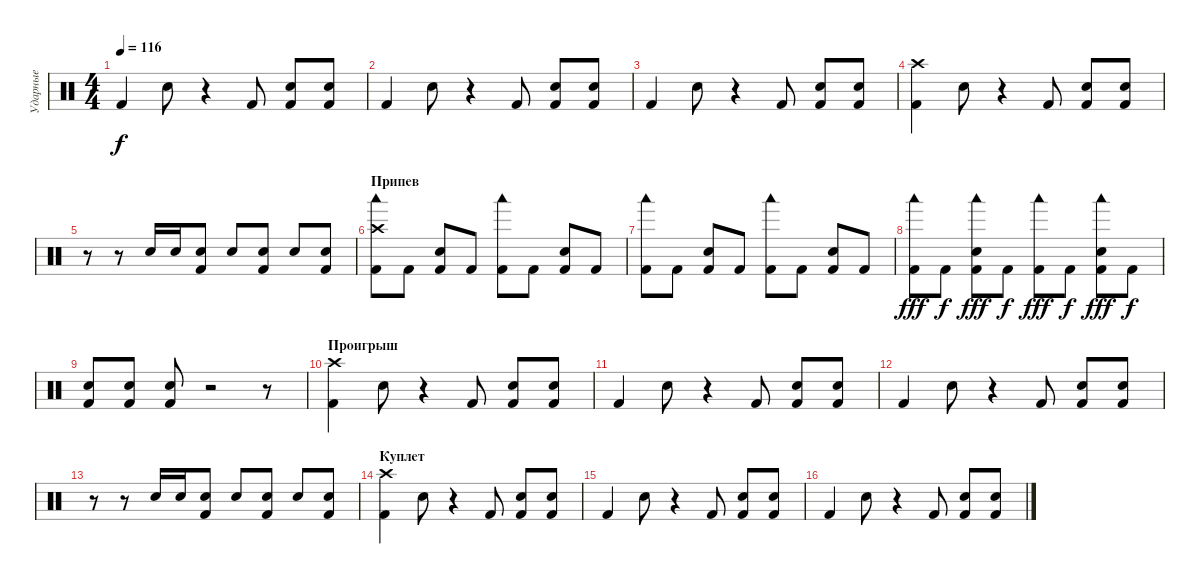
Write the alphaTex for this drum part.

\track ("Ударные" "Ударные") {instrument percussion}
\staff {score}
\articulation defaults
\ts (4 4)
\tempo 116
\clef neutral
\ks c "Kick (hit) 2".4{dy f} "Electric Snare (hit)".8
r.4 "Kick (hit) 2".8 ("Electric Snare (hit)" "Kick (hit) 2").8 ("Electric Snare (hit)" "Kick (hit) 2").8 |
"Kick (hit) 2".4 "Electric Snare (hit)".8 r.4 "Kick (hit) 2".8 ("Electric Snare (hit)" "Kick (hit) 2").8 ("Electric Snare (hit)" "Kick (hit) 2").8 |
"Kick (hit) 2".4 "Electric Snare (hit)".8 r.4 "Kick (hit) 2".8 ("Electric Snare (hit)" "Kick (hit) 2").8 ("Electric Snare (hit)" "Kick (hit) 2").8 |
("Crash high (hit)" "Kick (hit) 2").4 "Electric Snare (hit)".8 r.4 "Kick (hit) 2".8 ("Electric Snare (hit)" "Kick (hit) 2").8 ("Electric Snare (hit)" "Kick (hit) 2").8 |
r.8 r.8 "Electric Snare (hit)".16 "Electric Snare (hit)".16 ("Electric Snare (hit)" "Kick (hit) 2").8 "Electric Snare (hit)".8 ("Electric Snare (hit)" "Kick (hit) 2").8 "Electric Snare (hit)".8 ("Electric Snare (hit)" "Kick (hit) 2").8 |
\section ("" "Припев")
("Kick (hit) 2" "Crash high (hit)" "Woodblock low (hit)").8{volume 16} "Kick (hit) 2".8 ("Kick (hit) 2" "Electric Snare (hit)").8 "Kick (hit) 2".8 ("Kick (hit) 2" "Woodblock low (hit)").8 "Kick (hit) 2".8 ("Kick (hit) 2" "Electric Snare (hit)").8 "Kick (hit) 2".8 |
("Kick (hit) 2" "Woodblock low (hit)").8 "Kick (hit) 2".8 ("Kick (hit) 2" "Electric Snare (hit)").8 "Kick (hit) 2".8 ("Kick (hit) 2" "Woodblock low (hit)").8 "Kick (hit) 2".8 ("Kick (hit) 2" "Electric Snare (hit)").8 "Kick (hit) 2".8 |
("Kick (hit) 2" "Woodblock low (hit)").8{dy fff} "Kick (hit) 2".8{dy f} ("Kick (hit) 2" "Electric Snare (hit)" "Woodblock low (hit)").8{dy fff} "Kick (hit) 2".8{dy f} ("Kick (hit) 2" "Woodblock low (hit)").8{dy fff} "Kick (hit) 2".8{dy f} ("Kick (hit) 2" "Electric Snare (hit)" "Woodblock low (hit)").8{dy fff} "Kick (hit) 2".8{dy f} |
("Electric Snare (hit)" "Kick (hit) 2").8 ("Electric Snare (hit)" "Kick (hit) 2").8 ("Electric Snare (hit)" "Kick (hit) 2").8 r.2 r.8 |
\section ("" "Проигрыш")
("Crash high (hit)" "Kick (hit) 2").4 "Electric Snare (hit)".8 r.4 "Kick (hit) 2".8 ("Electric Snare (hit)" "Kick (hit) 2").8 ("Electric Snare (hit)" "Kick (hit) 2").8 |
"Kick (hit) 2".4 "Electric Snare (hit)".8 r.4 "Kick (hit) 2".8 ("Electric Snare (hit)" "Kick (hit) 2").8 ("Electric Snare (hit)" "Kick (hit) 2").8 |
"Kick (hit) 2".4 "Electric Snare (hit)".8 r.4 "Kick (hit) 2".8 ("Electric Snare (hit)" "Kick (hit) 2").8 ("Electric Snare (hit)" "Kick (hit) 2").8 |
r.8 r.8 "Electric Snare (hit)".16 "Electric Snare (hit)".16 ("Electric Snare (hit)" "Kick (hit) 2").8 "Electric Snare (hit)".8 ("Electric Snare (hit)" "Kick (hit) 2").8 "Electric Snare (hit)".8 ("Electric Snare (hit)" "Kick (hit) 2").8 |
\section ("" "Куплет")
("Crash high (hit)" "Kick (hit) 2").4 "Electric Snare (hit)".8 r.4 "Kick (hit) 2".8 ("Electric Snare (hit)" "Kick (hit) 2").8 ("Electric Snare (hit)" "Kick (hit) 2").8 |
"Kick (hit) 2".4 "Electric Snare (hit)".8 r.4 "Kick (hit) 2".8 ("Electric Snare (hit)" "Kick (hit) 2").8 ("Electric Snare (hit)" "Kick (hit) 2").8 |
"Kick (hit) 2".4 "Electric Snare (hit)".8 r.4 "Kick (hit) 2".8 ("Electric Snare (hit)" "Kick (hit) 2").8 ("Electric Snare (hit)" "Kick (hit) 2").8
